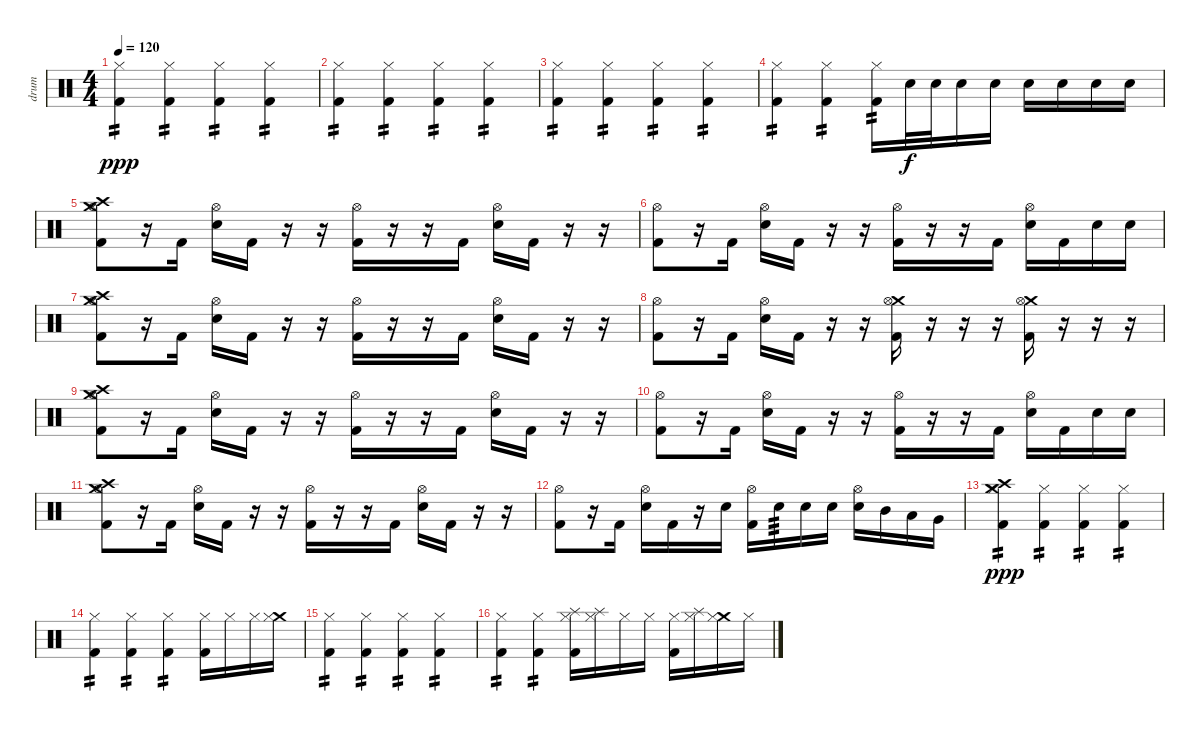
\track ("drum" "drum") {instrument percussion}
\staff {score}
\articulation defaults
\ts (4 4)
\tempo 120
\clef neutral
\ks c
("Kick (hit) 2" "Hi-Hat (closed)").4{tp 2 dy ppp} ("Kick (hit) 2" "Hi-Hat (closed)").4{tp 2} ("Kick (hit) 2" "Hi-Hat (closed)").4{tp 2} ("Kick (hit) 2" "Hi-Hat (closed)").4{tp 2} |
("Kick (hit) 2" "Hi-Hat (closed)").4{tp 2} ("Kick (hit) 2" "Hi-Hat (closed)").4{tp 2} ("Kick (hit) 2" "Hi-Hat (closed)").4{tp 2} ("Kick (hit) 2" "Hi-Hat (closed)").4{tp 2} |
("Kick (hit) 2" "Hi-Hat (closed)").4{tp 2} ("Kick (hit) 2" "Hi-Hat (closed)").4{tp 2} ("Kick (hit) 2" "Hi-Hat (closed)").4{tp 2} ("Kick (hit) 2" "Hi-Hat (closed)").4{tp 2} |
("Kick (hit) 2" "Hi-Hat (closed)").4{tp 2} ("Kick (hit) 2" "Hi-Hat (closed)").4{tp 2} ("Kick (hit) 2" "Hi-Hat (closed)").16{tp 2} "Electric Snare (hit)".32{dy f} "Electric Snare (hit)".32 "Electric Snare (hit)".16 "Electric Snare (hit)".16 "Electric Snare (hit)".16 "Electric Snare (hit)".16 "Electric Snare (hit)".16 "Electric Snare (hit)".16 |
("Crash medium (hit)" "Hi-Hat (open)" "Crash high (hit)" "Kick (hit) 2").8 r.16 "Kick (hit) 2".16 ("Hi-Hat (open)" "Electric Snare (hit)").16 "Kick (hit) 2".16 r.16 r.16 ("Hi-Hat (open)" "Kick (hit) 2").16 r.16 r.16 "Kick (hit) 2".16 ("Hi-Hat (open)" "Electric Snare (hit)").16 "Kick (hit) 2".16 r.16 r.16 |
("Hi-Hat (open)" "Kick (hit) 2").8 r.16 "Kick (hit) 2".16 ("Hi-Hat (open)" "Electric Snare (hit)").16 "Kick (hit) 2".16 r.16 r.16 ("Hi-Hat (open)" "Kick (hit) 2").16 r.16 r.16 "Kick (hit) 2".16 ("Hi-Hat (open)" "Electric Snare (hit)").16 "Kick (hit) 2".16 "Electric Snare (hit)".16 "Electric Snare (hit)".16 |
("Crash medium (hit)" "Hi-Hat (open)" "Crash high (hit)" "Kick (hit) 2").8 r.16 "Kick (hit) 2".16 ("Hi-Hat (open)" "Electric Snare (hit)").16 "Kick (hit) 2".16 r.16 r.16 ("Hi-Hat (open)" "Kick (hit) 2").16 r.16 r.16 "Kick (hit) 2".16 ("Hi-Hat (open)" "Electric Snare (hit)").16 "Kick (hit) 2".16 r.16 r.16 |
("Hi-Hat (open)" "Kick (hit) 2").8 r.16 "Kick (hit) 2".16 ("Hi-Hat (open)" "Electric Snare (hit)").16 "Kick (hit) 2".16 r.16 r.16 ("Crash medium (hit)" "Hi-Hat (open)" "Kick (hit) 2").16 r.16 r.16 r.16 ("Crash medium (hit)" "Hi-Hat (open)" "Kick (hit) 2").16 r.16 r.16 r.16 |
("Crash medium (hit)" "Hi-Hat (open)" "Crash high (hit)" "Kick (hit) 2").8 r.16 "Kick (hit) 2".16 ("Hi-Hat (open)" "Electric Snare (hit)").16 "Kick (hit) 2".16 r.16 r.16 ("Hi-Hat (open)" "Kick (hit) 2").16 r.16 r.16 "Kick (hit) 2".16 ("Hi-Hat (open)" "Electric Snare (hit)").16 "Kick (hit) 2".16 r.16 r.16 |
("Hi-Hat (open)" "Kick (hit) 2").8 r.16 "Kick (hit) 2".16 ("Hi-Hat (open)" "Electric Snare (hit)").16 "Kick (hit) 2".16 r.16 r.16 ("Hi-Hat (open)" "Kick (hit) 2").16 r.16 r.16 "Kick (hit) 2".16 ("Hi-Hat (open)" "Electric Snare (hit)").16 "Kick (hit) 2".16 "Electric Snare (hit)".16 "Electric Snare (hit)".16 |
("Crash medium (hit)" "Hi-Hat (open)" "Crash high (hit)" "Kick (hit) 2").8 r.16 "Kick (hit) 2".16 ("Hi-Hat (open)" "Electric Snare (hit)").16 "Kick (hit) 2".16 r.16 r.16 ("Hi-Hat (open)" "Kick (hit) 2").16 r.16 r.16 "Kick (hit) 2".16 ("Hi-Hat (open)" "Electric Snare (hit)").16 "Kick (hit) 2".16 r.16 r.16 |
("Hi-Hat (open)" "Kick (hit) 2").8 r.16 "Kick (hit) 2".16 ("Hi-Hat (open)" "Electric Snare (hit)").16 "Kick (hit) 2".16 r.16 "Electric Snare (hit)".16 ("Hi-Hat (open)" "Kick (hit) 2").16 "Electric Snare (hit)".16{tp 3} "Electric Snare (hit)".16 "Electric Snare (hit)".16 ("Hi-Hat (open)" "Electric Snare (hit)").16 "Mid Tom (hit)".16 "Low Tom (hit)".16 "Very Low Tom (hit)".16 |
("Crash medium (hit)" "Crash high (hit)" "Kick (hit) 2" "Hi-Hat (closed)").4{tp 2 dy ppp} ("Kick (hit) 2" "Hi-Hat (closed)").4{tp 2} ("Kick (hit) 2" "Hi-Hat (closed)").4{tp 2} ("Kick (hit) 2" "Hi-Hat (closed)").4{tp 2} |
("Kick (hit) 2" "Hi-Hat (closed)").4{tp 2} ("Kick (hit) 2" "Hi-Hat (closed)").4{tp 2} ("Kick (hit) 2" "Hi-Hat (closed)").4{tp 2} ("Kick (hit) 2" "Hi-Hat (closed)").16 "Hi-Hat (closed)".16 "Hi-Hat (closed)".16 ("Crash medium (hit)" "Hi-Hat (closed)").16 |
("Kick (hit) 2" "Hi-Hat (closed)").4{tp 2} ("Kick (hit) 2" "Hi-Hat (closed)").4{tp 2} ("Kick (hit) 2" "Hi-Hat (closed)").4{tp 2} ("Kick (hit) 2" "Hi-Hat (closed)").4{tp 2} |
("Kick (hit) 2" "Hi-Hat (closed)").4{tp 2} ("Kick (hit) 2" "Hi-Hat (closed)").4{tp 2} ("Splash (hit)" "Kick (hit) 2" "Hi-Hat (closed)").16 ("Splash (hit)" "Hi-Hat (closed)").16 "Hi-Hat (closed)".16 "Hi-Hat (closed)".16 ("Kick (hit) 2" "Hi-Hat (closed)").16 ("Splash (hit)" "Hi-Hat (closed)").16 ("Crash medium (hit)" "Hi-Hat (closed)").16 "Hi-Hat (closed)".16
